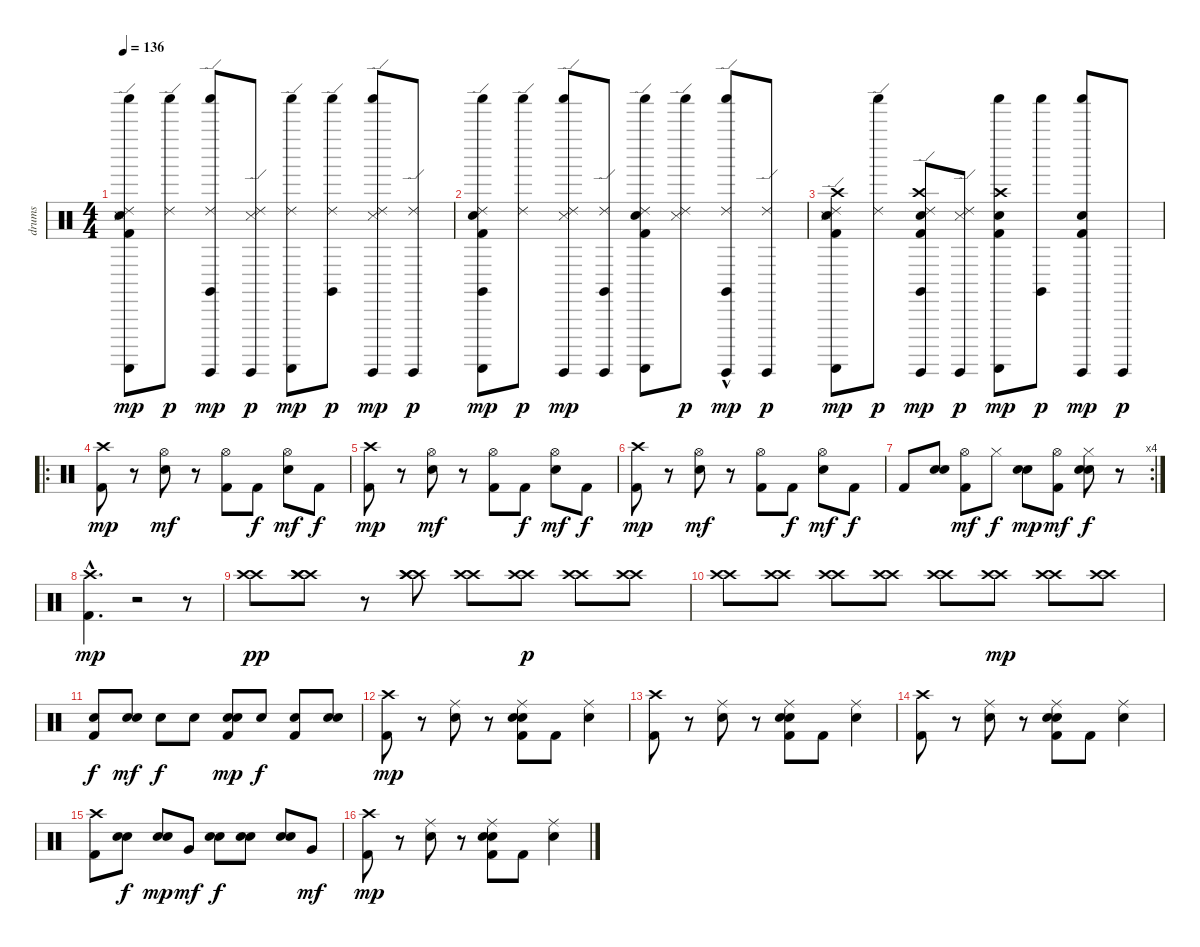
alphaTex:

\track ("drums" "drums") {instrument percussion}
\staff {score}
\articulation defaults
\ts (4 4)
\tempo 136
\clef neutral
\ks c
("Kick (hit) 2" "Snare (side stick) 3" "Snare (hit) 2" "Ride (edge) 2" "Guiro (scrap-return)" "Shaker (hit)").8{dy mp} ("Ride (edge) 2" "Shaker (hit)").8{dy p} ("Ride (edge) 2" "Guiro (hit)" "Claves (hit)" "Shaker (hit)").8{dy mp} ("Snare (side stick) 3" "Ride (edge) 2" "Guiro (hit)").8{dy p} ("Ride (edge) 2" "Guiro (scrap-return)" "Shaker (hit)").8{dy mp} ("Ride (edge) 2" "Claves (hit)" "Shaker (hit)").8{dy p} ("Snare (side stick) 3" "Ride (edge) 2" "Guiro (hit)" "Shaker (hit)").8{dy mp} ("Ride (edge) 2" "Guiro (hit)").8{dy p} |
("Kick (hit) 2" "Snare (hit) 2" "Ride (edge) 2" "Guiro (scrap-return)" "Claves (hit)" "Shaker (hit)").8{dy mp} ("Ride (edge) 2" "Shaker (hit)").8{dy p} ("Snare (side stick) 3" "Ride (edge) 2" "Guiro (hit)" "Shaker (hit)").8{dy mp} ("Ride (edge) 2" "Guiro (hit)" "Claves (hit)").8 ("Kick (hit) 2" "Snare (hit) 2" "Ride (edge) 2" "Guiro (scrap-return)" "Shaker (hit)").8 ("Snare (side stick) 3" "Ride (edge) 2" "Shaker (hit)").8{dy p} ("Ride (edge) 2" "Guiro (hit)" "Claves (hit)" "Shaker (hit)"{hac}).8{dy mp} ("Ride (edge) 2" "Guiro (hit)").8{dy p} |
("Kick (hit) 2" "Snare (side stick) 3" "Snare (hit) 2" "Crash high (hit)" "Ride (edge) 2" "Guiro (scrap-return)").8{dy mp} ("Ride (edge) 2" "Shaker (hit)").8{dy p} ("Kick (hit) 2" "Snare (hit) 2" "Crash high (hit)" "Ride (edge) 2" "Guiro (hit)" "Claves (hit)").8{dy mp} ("Snare (side stick) 3" "Ride (edge) 2" "Guiro (hit)").8{dy p} ("Kick (hit) 2" "Snare (hit) 2" "Crash high (hit)" "Guiro (scrap-return)" "Shaker (hit)").8{dy mp} ("Claves (hit)" "Shaker (hit)").8{dy p} ("Kick (hit) 2" "Snare (hit) 2" "Guiro (hit)" "Shaker (hit)").8{dy mp} "Guiro (hit)".8{dy p} |
\ro
("Kick (hit) 2" "Crash high (hit)").8{dy mp} r.8 ("Snare (hit) 2" "Hi-Hat (open)").8{dy mf} r.8 ("Kick (hit) 2" "Hi-Hat (open)").8 "Kick (hit) 2".8{dy f} ("Snare (hit) 2" "Hi-Hat (open)").8{dy mf} "Kick (hit) 2".8{dy f} |
("Kick (hit) 2" "Crash high (hit)").8{dy mp} r.8 ("Snare (hit) 2" "Hi-Hat (open)").8{dy mf} r.8 ("Kick (hit) 2" "Hi-Hat (open)").8 "Kick (hit) 2".8{dy f} ("Snare (hit) 2" "Hi-Hat (open)").8{dy mf} "Kick (hit) 2".8{dy f} |
("Kick (hit) 2" "Crash high (hit)").8{dy mp} r.8 ("Snare (hit) 2" "Hi-Hat (open)").8{dy mf} r.8 ("Kick (hit) 2" "Hi-Hat (open)").8 "Kick (hit) 2".8{dy f} ("Snare (hit) 2" "Hi-Hat (open)").8{dy mf} "Kick (hit) 2".8{dy f} |
\rc 4 "Kick (hit) 2".8
("Snare (hit) 2" "Snare (hit) 2").8 ("Kick (hit) 2" "Hi-Hat (open)").8{dy mf} "Hi-Hat (closed)".8{dy f} ("Snare (hit) 2" "Snare (hit) 2").8{dy mp} ("Kick (hit) 2" "Hi-Hat (open)").8{dy mf} ("Snare (hit) 2" "Snare (hit) 2" "Hi-Hat (closed)").8{dy f} r.8 |
("Kick (hit) 2"{hac} "Crash high (hit)"{hac}).4{d dy mp} r.2 r.8 |
("Crash high (hit)" "Crash high (hit)").8{dy pp} ("Crash high (hit)" "Crash high (hit)" "Crash high (hit)").8 r.8 ("Crash high (hit)" "Crash high (hit)" "Crash high (hit)").8 ("Crash high (hit)" "Crash high (hit)").8 ("Crash high (hit)" "Crash high (hit)").8{dy p} ("Crash high (hit)" "Crash high (hit)").8 ("Crash high (hit)" "Crash high (hit)").8 |
("Crash high (hit)" "Crash high (hit)").8 ("Crash high (hit)" "Crash high (hit)").8 ("Crash high (hit)" "Crash high (hit)").8 ("Crash high (hit)" "Crash high (hit)").8 ("Crash high (hit)" "Crash high (hit)").8 ("Crash high (hit)" "Crash high (hit)").8{dy mp} ("Crash high (hit)" "Crash high (hit)").8 ("Crash high (hit)" "Crash high (hit)").8 |
("Kick (hit) 2" "Snare (hit) 2").8{dy f} ("Snare (hit) 2" "Snare (hit) 2").8{dy mf} "Snare (hit) 2".8{dy f} "Snare (hit) 2".8 ("Kick (hit) 2" "Snare (hit) 2" "Snare (hit) 2").8{dy mp} "Snare (hit) 2".8{dy f} ("Kick (hit) 2" "Snare (hit) 2").8 ("Snare (hit) 2" "Snare (hit) 2").8 |
("Kick (hit) 2" "Crash high (hit)").8{dy mp} r.8 ("Snare (hit) 2" "Ride (middle)").8 r.8 ("Snare (hit) 2" "Kick (hit) 2" "Ride (middle)" "Snare (hit) 2").8 "Kick (hit) 2".8 ("Snare (hit) 2" "Ride (middle)").4 |
("Kick (hit) 2" "Crash high (hit)").8 r.8 ("Snare (hit) 2" "Ride (middle)").8 r.8 ("Snare (hit) 2" "Kick (hit) 2" "Ride (middle)" "Snare (hit) 2").8 "Kick (hit) 2".8 ("Snare (hit) 2" "Ride (middle)").4 |
("Kick (hit) 2" "Crash high (hit)").8 r.8 ("Snare (hit) 2" "Ride (middle)").8 r.8 ("Snare (hit) 2" "Kick (hit) 2" "Ride (middle)" "Snare (hit) 2").8 "Kick (hit) 2".8 ("Snare (hit) 2" "Ride (middle)").4 |
("Kick (hit) 2" "Crash high (hit)").8 ("Snare (hit) 2" "Snare (hit) 2").8{dy f} ("Snare (hit) 2" "Snare (hit) 2").8{dy mp} "Very Low Tom (hit)".8{dy mf} ("Snare (hit) 2" "Snare (hit) 2").8{dy f} ("Snare (hit) 2" "Snare (hit) 2").8 ("Snare (hit) 2" "Snare (hit) 2").8 "Very Low Tom (hit)".8{dy mf} |
("Kick (hit) 2" "Crash high (hit)").8{dy mp} r.8 ("Snare (hit) 2" "Ride (middle)").8 r.8 ("Snare (hit) 2" "Kick (hit) 2" "Ride (middle)" "Snare (hit) 2").8 "Kick (hit) 2".8 ("Snare (hit) 2" "Ride (middle)").4
